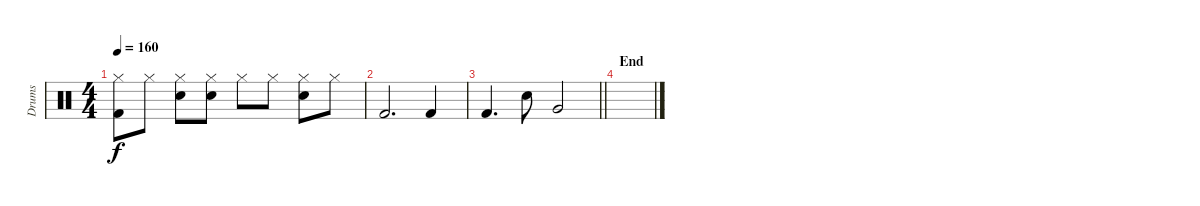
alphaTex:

\track ("Drums" "Drums") {instrument percussion}
\staff {score}
\articulation defaults
\ts (4 4)
\tempo 160
\clef neutral
\ks c
("Hi-Hat (closed)" "Kick (hit) 2").8{dy f} "Hi-Hat (closed)".8 ("Hi-Hat (closed)" "Electric Snare (hit)").8 ("Hi-Hat (closed)" "Electric Snare (hit)").8 "Hi-Hat (closed)".8 "Hi-Hat (closed)".8 ("Hi-Hat (closed)" "Electric Snare (hit)").8 "Hi-Hat (closed)".8 |
"Kick (hit) 2".2{d} "Kick (hit) 2".4 |
\barLineRight lightlight "Kick (hit) 2".4{d} "Electric Snare (hit)".8 "Very Low Tom (hit)".2
|
\section ("" "End")
